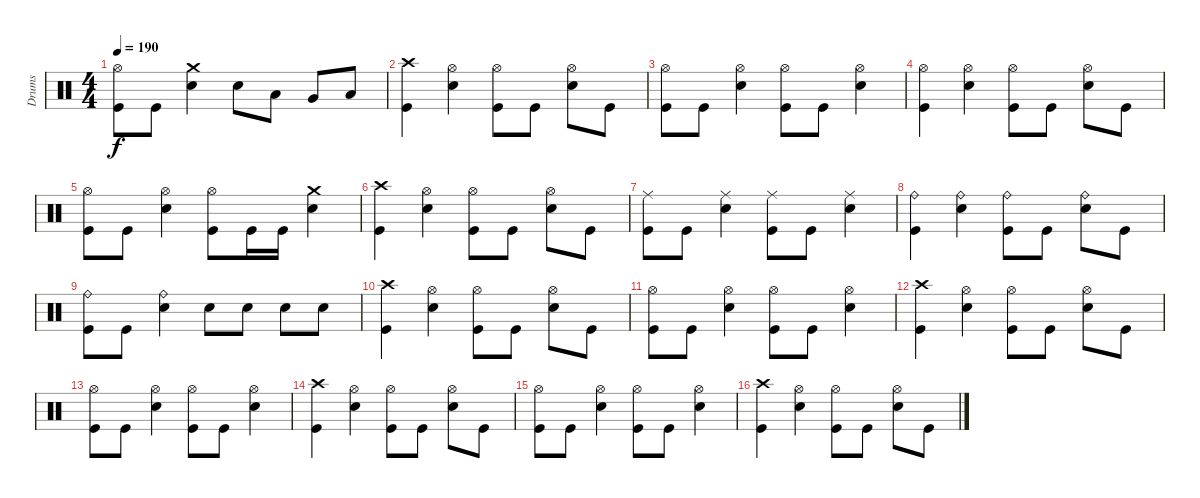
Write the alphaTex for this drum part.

\track ("Drums" "Drums") {instrument percussion}
\staff {score}
\articulation defaults
\ts (4 4)
\tempo 190
\clef neutral
\ks c
("Hi-Hat (open)" "Kick (hit)").8{dy f} "Kick (hit)".8 ("Crash medium (hit)" "Electric Snare (hit)").4 "Electric Snare (hit)".8 "Low Tom (hit)".8 "Very Low Tom (hit)".8 "Low Floor Tom (hit)".8 |
("Crash high (hit)" "Kick (hit)").4 ("Hi-Hat (open)" "Electric Snare (hit)").4 ("Hi-Hat (open)" "Kick (hit)").8 "Kick (hit)".8 ("Hi-Hat (open)" "Electric Snare (hit)").8 "Kick (hit)".8 |
("Hi-Hat (open)" "Kick (hit)").8 "Kick (hit)".8 ("Hi-Hat (open)" "Electric Snare (hit)").4 ("Hi-Hat (open)" "Kick (hit)").8 "Kick (hit)".8 ("Hi-Hat (open)" "Electric Snare (hit)").4 |
("Hi-Hat (open)" "Kick (hit)").4 ("Hi-Hat (open)" "Electric Snare (hit)").4 ("Hi-Hat (open)" "Kick (hit)").8 "Kick (hit)".8 ("Hi-Hat (open)" "Electric Snare (hit)").8 "Kick (hit)".8 |
("Hi-Hat (open)" "Kick (hit)").8 "Kick (hit)".8 ("Hi-Hat (open)" "Electric Snare (hit)").4 ("Hi-Hat (open)" "Kick (hit)").8 "Kick (hit)".16 "Kick (hit)".16 ("Crash medium (hit)" "Electric Snare (hit)").4 |
("Crash high (hit)" "Kick (hit)").4 ("Hi-Hat (open)" "Electric Snare (hit)").4 ("Hi-Hat (open)" "Kick (hit)").8 "Kick (hit)".8 ("Hi-Hat (open)" "Electric Snare (hit)").8 "Kick (hit)".8 |
("Ride (middle)" "Kick (hit)").8 "Kick (hit)".8 ("Ride (middle)" "Electric Snare (hit)").4 ("Ride (middle)" "Kick (hit)").8 "Kick (hit)".8 ("Ride (middle)" "Electric Snare (hit)").4 |
("Ride (bell)" "Kick (hit)").4 ("Ride (bell)" "Electric Snare (hit)").4 ("Ride (bell)" "Kick (hit)").8 "Kick (hit)".8 ("Ride (bell)" "Electric Snare (hit)").8 "Kick (hit)".8 |
("Ride (bell)" "Kick (hit)").8 "Kick (hit)".8 ("Ride (bell)" "Electric Snare (hit)").4 "Electric Snare (hit)".8 "Electric Snare (hit)".8 "Electric Snare (hit)".8 "Electric Snare (hit)".8 |
("Crash high (hit)" "Kick (hit)").4 ("Hi-Hat (open)" "Electric Snare (hit)").4 ("Hi-Hat (open)" "Kick (hit)").8 "Kick (hit)".8 ("Hi-Hat (open)" "Electric Snare (hit)").8 "Kick (hit)".8 |
("Hi-Hat (open)" "Kick (hit)").8 "Kick (hit)".8 ("Hi-Hat (open)" "Electric Snare (hit)").4 ("Hi-Hat (open)" "Kick (hit)").8 "Kick (hit)".8 ("Hi-Hat (open)" "Electric Snare (hit)").4 |
("Crash high (hit)" "Kick (hit)").4 ("Hi-Hat (open)" "Electric Snare (hit)").4 ("Hi-Hat (open)" "Kick (hit)").8 "Kick (hit)".8 ("Hi-Hat (open)" "Electric Snare (hit)").8 "Kick (hit)".8 |
("Hi-Hat (open)" "Kick (hit)").8 "Kick (hit)".8 ("Hi-Hat (open)" "Electric Snare (hit)").4 ("Hi-Hat (open)" "Kick (hit)").8 "Kick (hit)".8 ("Hi-Hat (open)" "Electric Snare (hit)").4 |
("Crash high (hit)" "Kick (hit)").4 ("Hi-Hat (open)" "Electric Snare (hit)").4 ("Hi-Hat (open)" "Kick (hit)").8 "Kick (hit)".8 ("Hi-Hat (open)" "Electric Snare (hit)").8 "Kick (hit)".8 |
("Hi-Hat (open)" "Kick (hit)").8 "Kick (hit)".8 ("Hi-Hat (open)" "Electric Snare (hit)").4 ("Hi-Hat (open)" "Kick (hit)").8 "Kick (hit)".8 ("Hi-Hat (open)" "Electric Snare (hit)").4 |
("Crash high (hit)" "Kick (hit)").4 ("Hi-Hat (open)" "Electric Snare (hit)").4 ("Hi-Hat (open)" "Kick (hit)").8 "Kick (hit)".8 ("Hi-Hat (open)" "Electric Snare (hit)").8 "Kick (hit)".8
